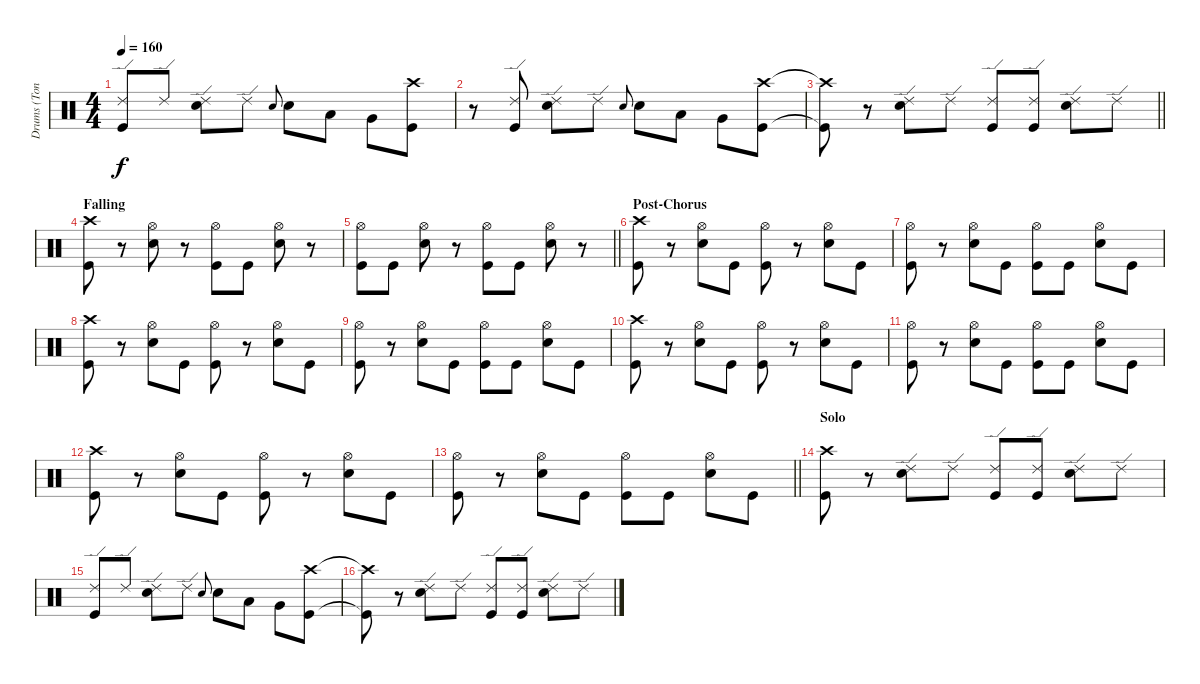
\track ("Drums (Tony)" "Drums (Ton") {instrument percussion}
\staff {score}
\articulation defaults
\ts (4 4)
\tempo 160
\clef neutral
\ks c
("Ride (edge) 2" "Kick (hit)").8{dy f} "Ride (edge) 2".8 ("Ride (edge) 2" "Snare (hit) 2").8 "Ride (edge) 2".8 "Snare (hit) 2".8{gr onbeat} "Snare (hit) 2".8 "Low Tom (hit)".8 "Very Low Tom (hit)".8 ("Crash high (hit)" "Kick (hit)").8 |
r.8 ("Ride (edge) 2" "Kick (hit)").8 ("Ride (edge) 2" "Snare (hit) 2").8 "Ride (edge) 2".8 "Snare (hit) 2".8{gr onbeat} "Snare (hit) 2".8 "Low Tom (hit)".8 "Very Low Tom (hit)".8 ("Crash high (hit)" "Kick (hit)").8 |
\barLineRight lightlight
("Crash high (hit)"{t} "Kick (hit)"{t}).8 r.8 ("Ride (edge) 2" "Snare (hit) 2").8 "Ride (edge) 2".8 ("Ride (edge) 2" "Kick (hit)").8 ("Ride (edge) 2" "Kick (hit)").8 ("Ride (edge) 2" "Snare (hit) 2").8 "Ride (edge) 2".8 |
\section ("" "Falling")
("Crash high (hit)" "Kick (hit)").8 r.8 ("Hi-Hat (open)" "Snare (hit) 2").8 r.8 ("Hi-Hat (open)" "Kick (hit)").8 "Kick (hit)".8 ("Hi-Hat (open)" "Snare (hit) 2").8 r.8 |
\barLineRight lightlight
("Hi-Hat (open)" "Kick (hit)").8 "Kick (hit)".8 ("Hi-Hat (open)" "Snare (hit) 2").8 r.8 ("Hi-Hat (open)" "Kick (hit)").8 "Kick (hit)".8 ("Hi-Hat (open)" "Snare (hit) 2").8 r.8 |
\section ("" "Post-Chorus")
("Crash high (hit)" "Kick (hit)").8 r.8 ("Hi-Hat (open)" "Snare (hit) 2").8 "Kick (hit)".8 ("Hi-Hat (open)" "Kick (hit)").8 r.8 ("Hi-Hat (open)" "Snare (hit) 2").8 "Kick (hit)".8 |
("Hi-Hat (open)" "Kick (hit)").8 r.8 ("Hi-Hat (open)" "Snare (hit) 2").8 "Kick (hit)".8 ("Hi-Hat (open)" "Kick (hit)").8 "Kick (hit)".8 ("Hi-Hat (open)" "Snare (hit) 2").8 "Kick (hit)".8 |
("Crash high (hit)" "Kick (hit)").8 r.8 ("Hi-Hat (open)" "Snare (hit) 2").8 "Kick (hit)".8 ("Hi-Hat (open)" "Kick (hit)").8 r.8 ("Hi-Hat (open)" "Snare (hit) 2").8 "Kick (hit)".8 |
("Hi-Hat (open)" "Kick (hit)").8 r.8 ("Hi-Hat (open)" "Snare (hit) 2").8 "Kick (hit)".8 ("Hi-Hat (open)" "Kick (hit)").8 "Kick (hit)".8 ("Hi-Hat (open)" "Snare (hit) 2").8 "Kick (hit)".8 |
("Crash high (hit)" "Kick (hit)").8 r.8 ("Hi-Hat (open)" "Snare (hit) 2").8 "Kick (hit)".8 ("Hi-Hat (open)" "Kick (hit)").8 r.8 ("Hi-Hat (open)" "Snare (hit) 2").8 "Kick (hit)".8 |
("Hi-Hat (open)" "Kick (hit)").8 r.8 ("Hi-Hat (open)" "Snare (hit) 2").8 "Kick (hit)".8 ("Hi-Hat (open)" "Kick (hit)").8 "Kick (hit)".8 ("Hi-Hat (open)" "Snare (hit) 2").8 "Kick (hit)".8 |
("Crash high (hit)" "Kick (hit)").8 r.8 ("Hi-Hat (open)" "Snare (hit) 2").8 "Kick (hit)".8 ("Hi-Hat (open)" "Kick (hit)").8 r.8 ("Hi-Hat (open)" "Snare (hit) 2").8 "Kick (hit)".8 |
\barLineRight lightlight
("Hi-Hat (open)" "Kick (hit)").8 r.8 ("Hi-Hat (open)" "Snare (hit) 2").8 "Kick (hit)".8 ("Hi-Hat (open)" "Kick (hit)").8 "Kick (hit)".8 ("Hi-Hat (open)" "Snare (hit) 2").8 "Kick (hit)".8 |
\section ("" "Solo")
("Crash high (hit)" "Kick (hit)").8 r.8 ("Ride (edge) 2" "Snare (hit) 2").8 "Ride (edge) 2".8 ("Ride (edge) 2" "Kick (hit)").8 ("Ride (edge) 2" "Kick (hit)").8 ("Ride (edge) 2" "Snare (hit) 2").8 "Ride (edge) 2".8 |
("Ride (edge) 2" "Kick (hit)").8 "Ride (edge) 2".8 ("Ride (edge) 2" "Snare (hit) 2").8 "Ride (edge) 2".8 "Snare (hit) 2".8{gr onbeat} "Snare (hit) 2".8 "Low Tom (hit)".8 "Very Low Tom (hit)".8 ("Crash high (hit)" "Kick (hit)").8 |
("Crash high (hit)"{t} "Kick (hit)"{t}).8 r.8 ("Ride (edge) 2" "Snare (hit) 2").8 "Ride (edge) 2".8 ("Ride (edge) 2" "Kick (hit)").8 ("Ride (edge) 2" "Kick (hit)").8 ("Ride (edge) 2" "Snare (hit) 2").8 "Ride (edge) 2".8
